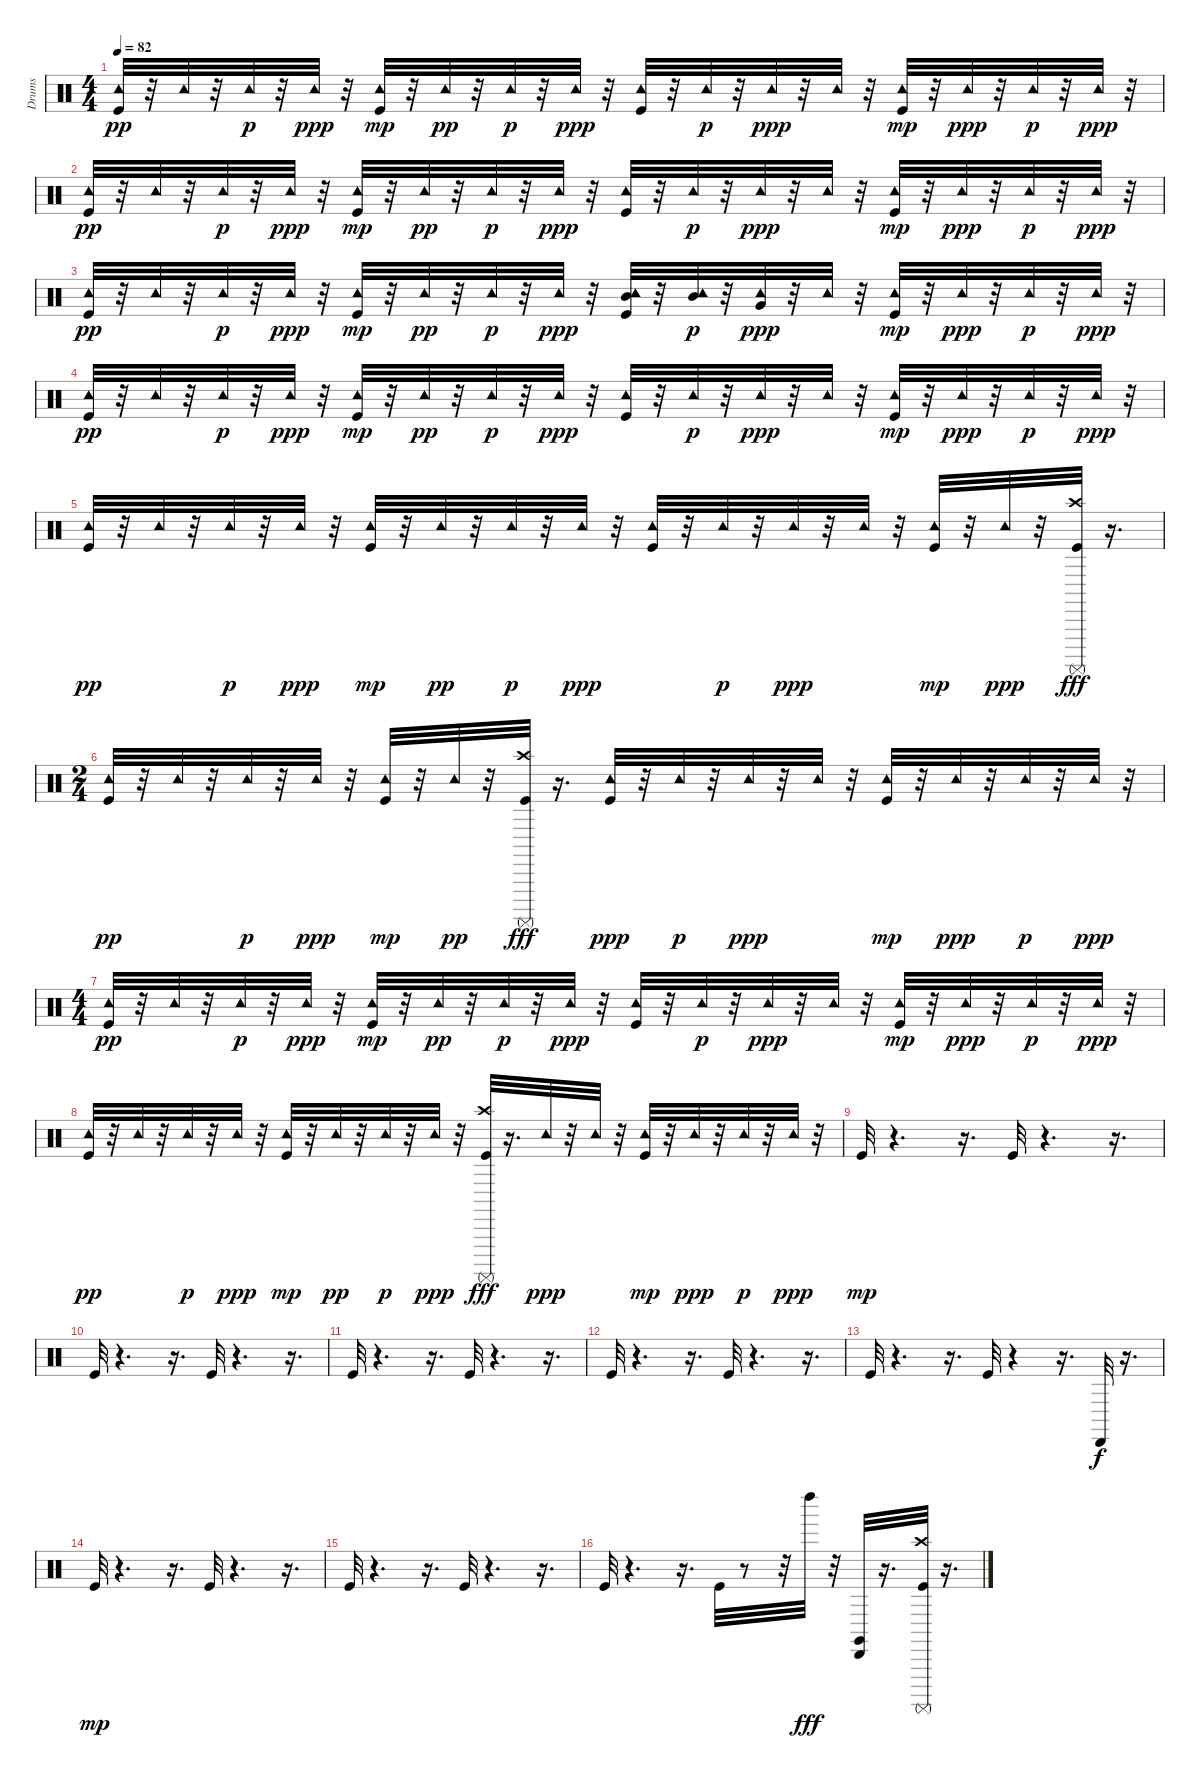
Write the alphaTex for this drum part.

\track ("Drums" "Drums") {instrument percussion}
\staff {score}
\articulation defaults
\ts (4 4)
\tempo 82
\clef neutral
\ks c
("Kick (hit)" "Tambourine (hit)").32{dy pp} r.32 "Tambourine (hit)".32 r.32 "Tambourine (hit)".32{dy p} r.32 "Tambourine (hit)".32{dy ppp} r.32 ("Kick (hit)" "Tambourine (hit)").32{dy mp} r.32 "Tambourine (hit)".32{dy pp} r.32 "Tambourine (hit)".32{dy p} r.32 "Tambourine (hit)".32{dy ppp} r.32 ("Kick (hit)" "Tambourine (hit)").32 r.32 "Tambourine (hit)".32{dy p} r.32 "Tambourine (hit)".32{dy ppp} r.32 "Tambourine (hit)".32 r.32 ("Kick (hit)" "Tambourine (hit)").32{dy mp} r.32 "Tambourine (hit)".32{dy ppp} r.32 "Tambourine (hit)".32{dy p} r.32 "Tambourine (hit)".32{dy ppp} r.32 |
("Kick (hit)" "Tambourine (hit)").32{dy pp} r.32 "Tambourine (hit)".32 r.32 "Tambourine (hit)".32{dy p} r.32 "Tambourine (hit)".32{dy ppp} r.32 ("Kick (hit)" "Tambourine (hit)").32{dy mp} r.32 "Tambourine (hit)".32{dy pp} r.32 "Tambourine (hit)".32{dy p} r.32 "Tambourine (hit)".32{dy ppp} r.32 ("Kick (hit)" "Tambourine (hit)").32 r.32 "Tambourine (hit)".32{dy p} r.32 "Tambourine (hit)".32{dy ppp} r.32 "Tambourine (hit)".32 r.32 ("Kick (hit)" "Tambourine (hit)").32{dy mp} r.32 "Tambourine (hit)".32{dy ppp} r.32 "Tambourine (hit)".32{dy p} r.32 "Tambourine (hit)".32{dy ppp} r.32 |
("Kick (hit)" "Tambourine (hit)").32{dy pp} r.32 "Tambourine (hit)".32 r.32 "Tambourine (hit)".32{dy p} r.32 "Tambourine (hit)".32{dy ppp} r.32 ("Kick (hit)" "Tambourine (hit)").32{dy mp} r.32 "Tambourine (hit)".32{dy pp} r.32 "Tambourine (hit)".32{dy p} r.32 "Tambourine (hit)".32{dy ppp} r.32 ("Mid Tom (hit)" "Kick (hit)" "Tambourine (hit)").32 r.32 ("Mid Tom (hit)" "Tambourine (hit)").32{dy p} r.32 ("Very Low Tom (hit)" "Tambourine (hit)").32{dy ppp} r.32 "Tambourine (hit)".32 r.32 ("Kick (hit)" "Tambourine (hit)").32{dy mp} r.32 "Tambourine (hit)".32{dy ppp} r.32 "Tambourine (hit)".32{dy p} r.32 "Tambourine (hit)".32{dy ppp} r.32 |
("Kick (hit)" "Tambourine (hit)").32{dy pp} r.32 "Tambourine (hit)".32 r.32 "Tambourine (hit)".32{dy p} r.32 "Tambourine (hit)".32{dy ppp} r.32 ("Kick (hit)" "Tambourine (hit)").32{dy mp} r.32 "Tambourine (hit)".32{dy pp} r.32 "Tambourine (hit)".32{dy p} r.32 "Tambourine (hit)".32{dy ppp} r.32 ("Kick (hit)" "Tambourine (hit)").32 r.32 "Tambourine (hit)".32{dy p} r.32 "Tambourine (hit)".32{dy ppp} r.32 "Tambourine (hit)".32 r.32 ("Kick (hit)" "Tambourine (hit)").32{dy mp} r.32 "Tambourine (hit)".32{dy ppp} r.32 "Tambourine (hit)".32{dy p} r.32 "Tambourine (hit)".32{dy ppp} r.32 |
("Kick (hit)" "Tambourine (hit)").32{dy pp} r.32 "Tambourine (hit)".32 r.32 "Tambourine (hit)".32{dy p} r.32 "Tambourine (hit)".32{dy ppp} r.32 ("Kick (hit)" "Tambourine (hit)").32{dy mp} r.32 "Tambourine (hit)".32{dy pp} r.32 "Tambourine (hit)".32{dy p} r.32 "Tambourine (hit)".32{dy ppp} r.32 ("Kick (hit)" "Tambourine (hit)").32 r.32 "Tambourine (hit)".32{dy p} r.32 "Tambourine (hit)".32{dy ppp} r.32 "Tambourine (hit)".32 r.32 ("Kick (hit)" "Tambourine (hit)").32{dy mp} r.32 "Tambourine (hit)".32{dy ppp} r.32 ("Crash high (hit)" "Kick (hit)" "Surdo (mute)").32{dy fff} r.16{d} |
\ts (2 4)
("Kick (hit)" "Tambourine (hit)").32{dy pp} r.32 "Tambourine (hit)".32 r.32 "Tambourine (hit)".32{dy p} r.32 "Tambourine (hit)".32{dy ppp} r.32 ("Kick (hit)" "Tambourine (hit)").32{dy mp} r.32 "Tambourine (hit)".32{dy pp} r.32 ("Surdo (mute)" "Kick (hit)" "Crash high (hit)").32{dy fff} r.16{d} ("Kick (hit)" "Tambourine (hit)").32{dy ppp} r.32 "Tambourine (hit)".32{dy p} r.32 "Tambourine (hit)".32{dy ppp} r.32 "Tambourine (hit)".32 r.32 ("Kick (hit)" "Tambourine (hit)").32{dy mp} r.32 "Tambourine (hit)".32{dy ppp} r.32 "Tambourine (hit)".32{dy p} r.32 "Tambourine (hit)".32{dy ppp} r.32 |
\ts (4 4)
("Kick (hit)" "Tambourine (hit)").32{dy pp} r.32 "Tambourine (hit)".32 r.32 "Tambourine (hit)".32{dy p} r.32 "Tambourine (hit)".32{dy ppp} r.32 ("Kick (hit)" "Tambourine (hit)").32{dy mp} r.32 "Tambourine (hit)".32{dy pp} r.32 "Tambourine (hit)".32{dy p} r.32 "Tambourine (hit)".32{dy ppp} r.32 ("Kick (hit)" "Tambourine (hit)").32 r.32 "Tambourine (hit)".32{dy p} r.32 "Tambourine (hit)".32{dy ppp} r.32 "Tambourine (hit)".32 r.32 ("Kick (hit)" "Tambourine (hit)").32{dy mp} r.32 "Tambourine (hit)".32{dy ppp} r.32 "Tambourine (hit)".32{dy p} r.32 "Tambourine (hit)".32{dy ppp} r.32 |
("Kick (hit)" "Tambourine (hit)").32{dy pp} r.32 "Tambourine (hit)".32 r.32 "Tambourine (hit)".32{dy p} r.32 "Tambourine (hit)".32{dy ppp} r.32 ("Kick (hit)" "Tambourine (hit)").32{dy mp} r.32 "Tambourine (hit)".32{dy pp} r.32 "Tambourine (hit)".32{dy p} r.32 "Tambourine (hit)".32{dy ppp} r.32 ("Surdo (mute)" "Kick (hit)" "Crash high (hit)").32{dy fff} r.16{d} "Tambourine (hit)".32{dy ppp} r.32 "Tambourine (hit)".32 r.32 ("Kick (hit)" "Tambourine (hit)").32{dy mp} r.32 "Tambourine (hit)".32{dy ppp} r.32 "Tambourine (hit)".32{dy p} r.32 "Tambourine (hit)".32{dy ppp} r.32 |
"Kick (hit)".32{dy mp} r.4{d} r.16{d} "Kick (hit)".32 r.4{d} r.16{d} |
"Kick (hit)".32 r.4{d} r.16{d} "Kick (hit)".32 r.4{d} r.16{d} |
"Kick (hit)".32 r.4{d} r.16{d} "Kick (hit)".32 r.4{d} r.16{d} |
"Kick (hit)".32 r.4{d} r.16{d} "Kick (hit)".32 r.4{d} r.16{d} |
"Kick (hit)".32 r.4{d} r.16{d} "Kick (hit)".32 r.4 r.16{d} "Cabasa (hit)".32{dy f} r.16{d} |
"Kick (hit)".32{dy mp} r.4{d} r.16{d} "Kick (hit)".32 r.4{d} r.16{d} |
"Kick (hit)".32 r.4{d} r.16{d} "Kick (hit)".32 r.4{d} r.16{d} |
"Kick (hit)".32 r.4{d} r.16{d} "Kick (hit)".32 r.8 r.32 "Left Maraca (hit)".32{dy fff} r.32 ("Claves (hit)" "Cabasa (hit)").32 r.16{d} ("Crash high (hit)" "Surdo (mute)" "Kick (hit)").32 r.16{d}
